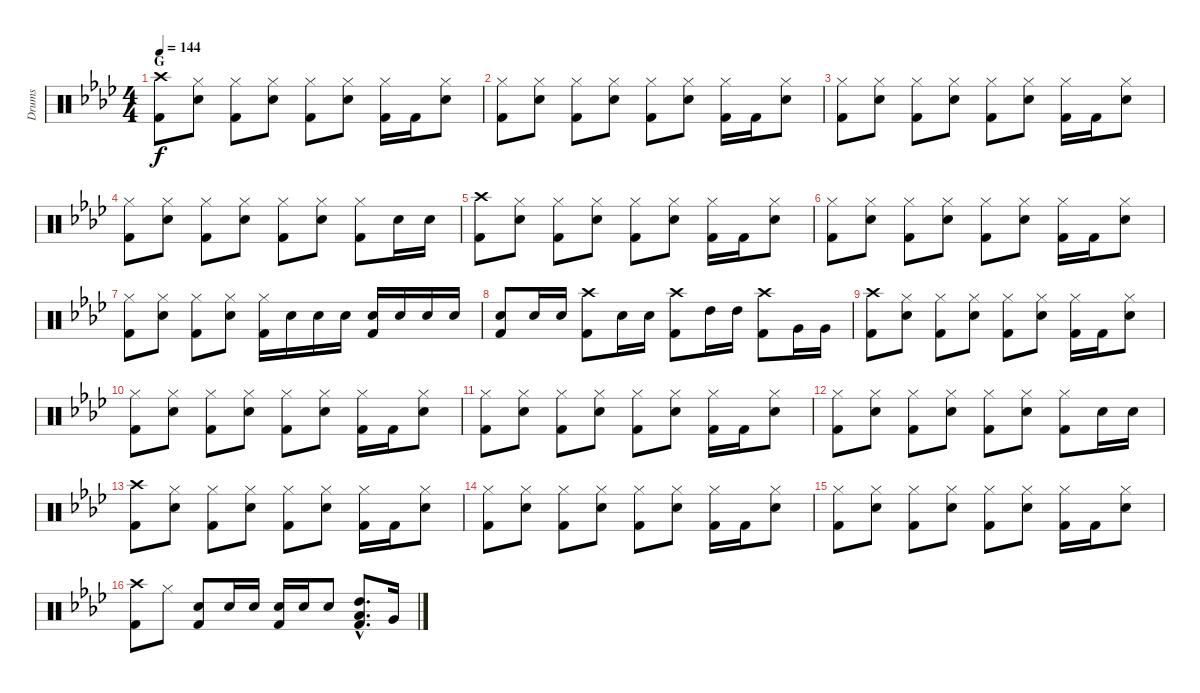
\track ("Drums" "Drums") {instrument percussion}
\staff {score}
\articulation defaults
\ts (4 4)
\section ("" "G")
\tempo 144
\clef neutral
\ks ab
("Crash high (hit)" "Kick (hit) 2").8{dy f} ("Hi-Hat (closed)" "Snare (hit) 2").8 ("Hi-Hat (closed)" "Kick (hit) 2").8 ("Hi-Hat (closed)" "Snare (hit) 2").8 ("Hi-Hat (closed)" "Kick (hit) 2").8 ("Hi-Hat (closed)" "Snare (hit) 2").8 ("Hi-Hat (closed)" "Kick (hit) 2").16 "Kick (hit) 2".16 ("Hi-Hat (closed)" "Snare (hit) 2").8 |
("Hi-Hat (closed)" "Kick (hit) 2").8 ("Hi-Hat (closed)" "Snare (hit) 2").8 ("Hi-Hat (closed)" "Kick (hit) 2").8 ("Hi-Hat (closed)" "Snare (hit) 2").8 ("Hi-Hat (closed)" "Kick (hit) 2").8 ("Hi-Hat (closed)" "Snare (hit) 2").8 ("Hi-Hat (closed)" "Kick (hit) 2").16 "Kick (hit) 2".16 ("Hi-Hat (closed)" "Snare (hit) 2").8 |
("Hi-Hat (closed)" "Kick (hit) 2").8 ("Hi-Hat (closed)" "Snare (hit) 2").8 ("Hi-Hat (closed)" "Kick (hit) 2").8 ("Hi-Hat (closed)" "Snare (hit) 2").8 ("Hi-Hat (closed)" "Kick (hit) 2").8 ("Hi-Hat (closed)" "Snare (hit) 2").8 ("Hi-Hat (closed)" "Kick (hit) 2").16 "Kick (hit) 2".16 ("Hi-Hat (closed)" "Snare (hit) 2").8 |
("Hi-Hat (closed)" "Kick (hit) 2").8 ("Hi-Hat (closed)" "Snare (hit) 2").8 ("Hi-Hat (closed)" "Kick (hit) 2").8 ("Hi-Hat (closed)" "Snare (hit) 2").8 ("Hi-Hat (closed)" "Kick (hit) 2").8 ("Hi-Hat (closed)" "Snare (hit) 2").8 ("Hi-Hat (closed)" "Kick (hit) 2").8 "Snare (hit) 2".16 "Snare (hit) 2".16 |
("Crash high (hit)" "Kick (hit) 2").8 ("Hi-Hat (closed)" "Snare (hit) 2").8 ("Hi-Hat (closed)" "Kick (hit) 2").8 ("Hi-Hat (closed)" "Snare (hit) 2").8 ("Hi-Hat (closed)" "Kick (hit) 2").8 ("Hi-Hat (closed)" "Snare (hit) 2").8 ("Hi-Hat (closed)" "Kick (hit) 2").16 "Kick (hit) 2".16 ("Hi-Hat (closed)" "Snare (hit) 2").8 |
("Hi-Hat (closed)" "Kick (hit) 2").8 ("Hi-Hat (closed)" "Snare (hit) 2").8 ("Hi-Hat (closed)" "Kick (hit) 2").8 ("Hi-Hat (closed)" "Snare (hit) 2").8 ("Hi-Hat (closed)" "Kick (hit) 2").8 ("Hi-Hat (closed)" "Snare (hit) 2").8 ("Hi-Hat (closed)" "Kick (hit) 2").16 "Kick (hit) 2".16 ("Hi-Hat (closed)" "Snare (hit) 2").8 |
("Hi-Hat (closed)" "Kick (hit) 2").8 ("Hi-Hat (closed)" "Snare (hit) 2").8 ("Hi-Hat (closed)" "Kick (hit) 2").8 ("Hi-Hat (closed)" "Snare (hit) 2").8 ("Hi-Hat (closed)" "Kick (hit) 2").16 "Snare (hit) 2".16 "Snare (hit) 2".16 "Snare (hit) 2".16 ("Snare (hit) 2" "Kick (hit) 2").16 "Snare (hit) 2".16 "Snare (hit) 2".16 "Snare (hit) 2".16 |
("Snare (hit) 2" "Kick (hit) 2").8 "Snare (hit) 2".16 "Snare (hit) 2".16 ("Crash high (hit)" "Kick (hit) 2").8 "Snare (hit) 2".16 "Snare (hit) 2".16 ("Crash high (hit)" "Kick (hit) 2").8 "High Tom (hit)".16 "High Tom (hit)".16 ("Crash high (hit)" "Kick (hit) 2").8 "Very Low Tom (hit)".16 "Very Low Tom (hit)".16 |
("Crash high (hit)" "Kick (hit) 2").8 ("Hi-Hat (closed)" "Snare (hit) 2").8 ("Hi-Hat (closed)" "Kick (hit) 2").8 ("Hi-Hat (closed)" "Snare (hit) 2").8 ("Hi-Hat (closed)" "Kick (hit) 2").8 ("Hi-Hat (closed)" "Snare (hit) 2").8 ("Hi-Hat (closed)" "Kick (hit) 2").16 "Kick (hit) 2".16 ("Hi-Hat (closed)" "Snare (hit) 2").8 |
("Hi-Hat (closed)" "Kick (hit) 2").8 ("Hi-Hat (closed)" "Snare (hit) 2").8 ("Hi-Hat (closed)" "Kick (hit) 2").8 ("Hi-Hat (closed)" "Snare (hit) 2").8 ("Hi-Hat (closed)" "Kick (hit) 2").8 ("Hi-Hat (closed)" "Snare (hit) 2").8 ("Hi-Hat (closed)" "Kick (hit) 2").16 "Kick (hit) 2".16 ("Hi-Hat (closed)" "Snare (hit) 2").8 |
("Hi-Hat (closed)" "Kick (hit) 2").8 ("Hi-Hat (closed)" "Snare (hit) 2").8 ("Hi-Hat (closed)" "Kick (hit) 2").8 ("Hi-Hat (closed)" "Snare (hit) 2").8 ("Hi-Hat (closed)" "Kick (hit) 2").8 ("Hi-Hat (closed)" "Snare (hit) 2").8 ("Hi-Hat (closed)" "Kick (hit) 2").16 "Kick (hit) 2".16 ("Hi-Hat (closed)" "Snare (hit) 2").8 |
("Hi-Hat (closed)" "Kick (hit) 2").8 ("Hi-Hat (closed)" "Snare (hit) 2").8 ("Hi-Hat (closed)" "Kick (hit) 2").8 ("Hi-Hat (closed)" "Snare (hit) 2").8 ("Hi-Hat (closed)" "Kick (hit) 2").8 ("Hi-Hat (closed)" "Snare (hit) 2").8 ("Hi-Hat (closed)" "Kick (hit) 2").8 "Snare (hit) 2".16 "Snare (hit) 2".16 |
("Crash high (hit)" "Kick (hit) 2").8 ("Hi-Hat (closed)" "Snare (hit) 2").8 ("Hi-Hat (closed)" "Kick (hit) 2").8 ("Hi-Hat (closed)" "Snare (hit) 2").8 ("Hi-Hat (closed)" "Kick (hit) 2").8 ("Hi-Hat (closed)" "Snare (hit) 2").8 ("Hi-Hat (closed)" "Kick (hit) 2").16 "Kick (hit) 2".16 ("Hi-Hat (closed)" "Snare (hit) 2").8 |
("Hi-Hat (closed)" "Kick (hit) 2").8 ("Hi-Hat (closed)" "Snare (hit) 2").8 ("Hi-Hat (closed)" "Kick (hit) 2").8 ("Hi-Hat (closed)" "Snare (hit) 2").8 ("Hi-Hat (closed)" "Kick (hit) 2").8 ("Hi-Hat (closed)" "Snare (hit) 2").8 ("Hi-Hat (closed)" "Kick (hit) 2").16 "Kick (hit) 2".16 ("Hi-Hat (closed)" "Snare (hit) 2").8 |
("Hi-Hat (closed)" "Kick (hit) 2").8 ("Hi-Hat (closed)" "Snare (hit) 2").8 ("Hi-Hat (closed)" "Kick (hit) 2").8 ("Hi-Hat (closed)" "Snare (hit) 2").8 ("Hi-Hat (closed)" "Kick (hit) 2").8 ("Hi-Hat (closed)" "Snare (hit) 2").8 ("Hi-Hat (closed)" "Kick (hit) 2").16 "Kick (hit) 2".16 ("Hi-Hat (closed)" "Snare (hit) 2").8 |
("Crash high (hit)" "Kick (hit) 2").8 "Hi-Hat (closed)".8 ("Snare (hit) 2" "Kick (hit) 2").8 "Snare (hit) 2".16 "Snare (hit) 2".16 ("Snare (hit) 2" "Kick (hit) 2").16 "Snare (hit) 2".16 "Snare (hit) 2".8 ("High Tom (hit)"{hac} "Low Tom (hit)"{hac} "Kick (hit) 2"{hac}).8{d} "Very Low Tom (hit)".16
